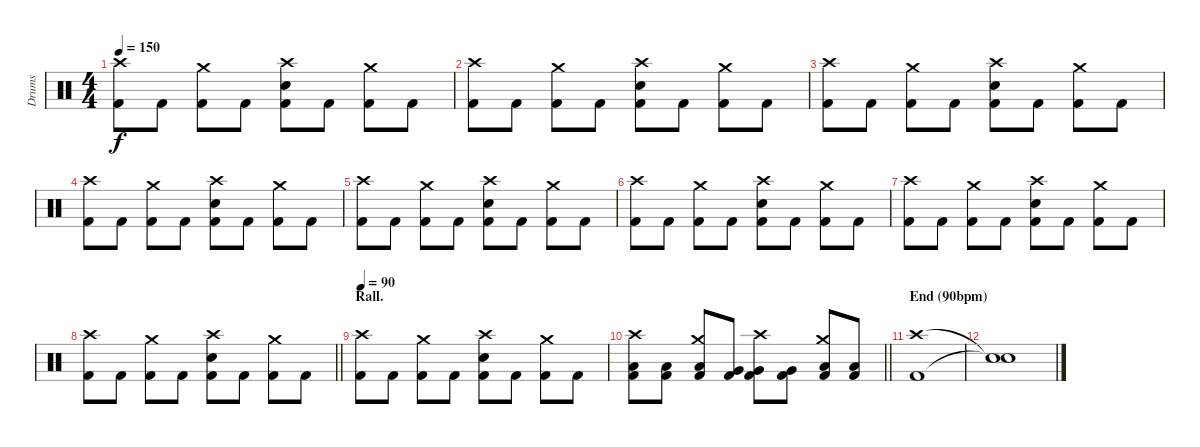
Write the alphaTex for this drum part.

\track ("Drums" "Drums") {instrument percussion}
\staff {score}
\articulation defaults
\ts (4 4)
\tempo 150
\clef neutral
\ks c
("Crash high (hit)" "Kick (hit) 2").8{dy f} "Kick (hit) 2".8 ("Crash medium (hit)" "Kick (hit) 2").8 "Kick (hit) 2".8 ("Crash high (hit)" "Snare (hit) 2" "Kick (hit) 2").8 "Kick (hit) 2".8 ("Crash medium (hit)" "Kick (hit) 2").8 "Kick (hit) 2".8 |
("Crash high (hit)" "Kick (hit) 2").8 "Kick (hit) 2".8 ("Crash medium (hit)" "Kick (hit) 2").8 "Kick (hit) 2".8 ("Crash high (hit)" "Snare (hit) 2" "Kick (hit) 2").8 "Kick (hit) 2".8 ("Crash medium (hit)" "Kick (hit) 2").8 "Kick (hit) 2".8 |
("Crash high (hit)" "Kick (hit) 2").8 "Kick (hit) 2".8 ("Crash medium (hit)" "Kick (hit) 2").8 "Kick (hit) 2".8 ("Crash high (hit)" "Snare (hit) 2" "Kick (hit) 2").8 "Kick (hit) 2".8 ("Crash medium (hit)" "Kick (hit) 2").8 "Kick (hit) 2".8 |
("Crash high (hit)" "Kick (hit) 2").8 "Kick (hit) 2".8 ("Crash medium (hit)" "Kick (hit) 2").8 "Kick (hit) 2".8 ("Crash high (hit)" "Snare (hit) 2" "Kick (hit) 2").8 "Kick (hit) 2".8 ("Crash medium (hit)" "Kick (hit) 2").8 "Kick (hit) 2".8 |
("Crash high (hit)" "Kick (hit) 2").8 "Kick (hit) 2".8 ("Crash medium (hit)" "Kick (hit) 2").8 "Kick (hit) 2".8 ("Crash high (hit)" "Snare (hit) 2" "Kick (hit) 2").8 "Kick (hit) 2".8 ("Crash medium (hit)" "Kick (hit) 2").8 "Kick (hit) 2".8 |
("Crash high (hit)" "Kick (hit) 2").8 "Kick (hit) 2".8 ("Crash medium (hit)" "Kick (hit) 2").8 "Kick (hit) 2".8 ("Crash high (hit)" "Snare (hit) 2" "Kick (hit) 2").8 "Kick (hit) 2".8 ("Crash medium (hit)" "Kick (hit) 2").8 "Kick (hit) 2".8 |
("Crash high (hit)" "Kick (hit) 2").8 "Kick (hit) 2".8 ("Crash medium (hit)" "Kick (hit) 2").8 "Kick (hit) 2".8 ("Crash high (hit)" "Snare (hit) 2" "Kick (hit) 2").8 "Kick (hit) 2".8 ("Crash medium (hit)" "Kick (hit) 2").8 "Kick (hit) 2".8 |
\barLineRight lightlight
("Crash high (hit)" "Kick (hit) 2").8 "Kick (hit) 2".8 ("Crash medium (hit)" "Kick (hit) 2").8 "Kick (hit) 2".8 ("Crash high (hit)" "Snare (hit) 2" "Kick (hit) 2").8 "Kick (hit) 2".8 ("Crash medium (hit)" "Kick (hit) 2").8 "Kick (hit) 2".8 |
\section ("" "Rall.")
\tempo 90
("Crash high (hit)" "Kick (hit) 2").8 "Kick (hit) 2".8 ("Crash medium (hit)" "Kick (hit) 2").8 "Kick (hit) 2".8 ("Crash high (hit)" "Snare (hit) 2" "Kick (hit) 2").8 "Kick (hit) 2".8 ("Crash medium (hit)" "Kick (hit) 2").8 "Kick (hit) 2".8 |
\barLineRight lightlight
("Crash high (hit)" "Low Tom (hit)" "Kick (hit) 2").8 ("Low Tom (hit)" "Kick (hit) 2").8 ("Crash medium (hit)" "Low Tom (hit)" "Kick (hit) 2").8 ("Very Low Tom (hit)" "Kick (hit) 2").8 ("Crash high (hit)" "Very Low Tom (hit)" "Kick (hit) 2").8 ("Very Low Tom (hit)" "Kick (hit) 2").8 ("Crash medium (hit)" "Low Floor Tom (hit)" "Kick (hit) 2").8 ("Low Floor Tom (hit)" "Kick (hit) 2").8 |
\section ("" "End (90bpm)")
("Crash high (hit)" "Kick (hit) 2").1 |
("Snare (hit)"{t} "Snare (hit)"{t}).1
